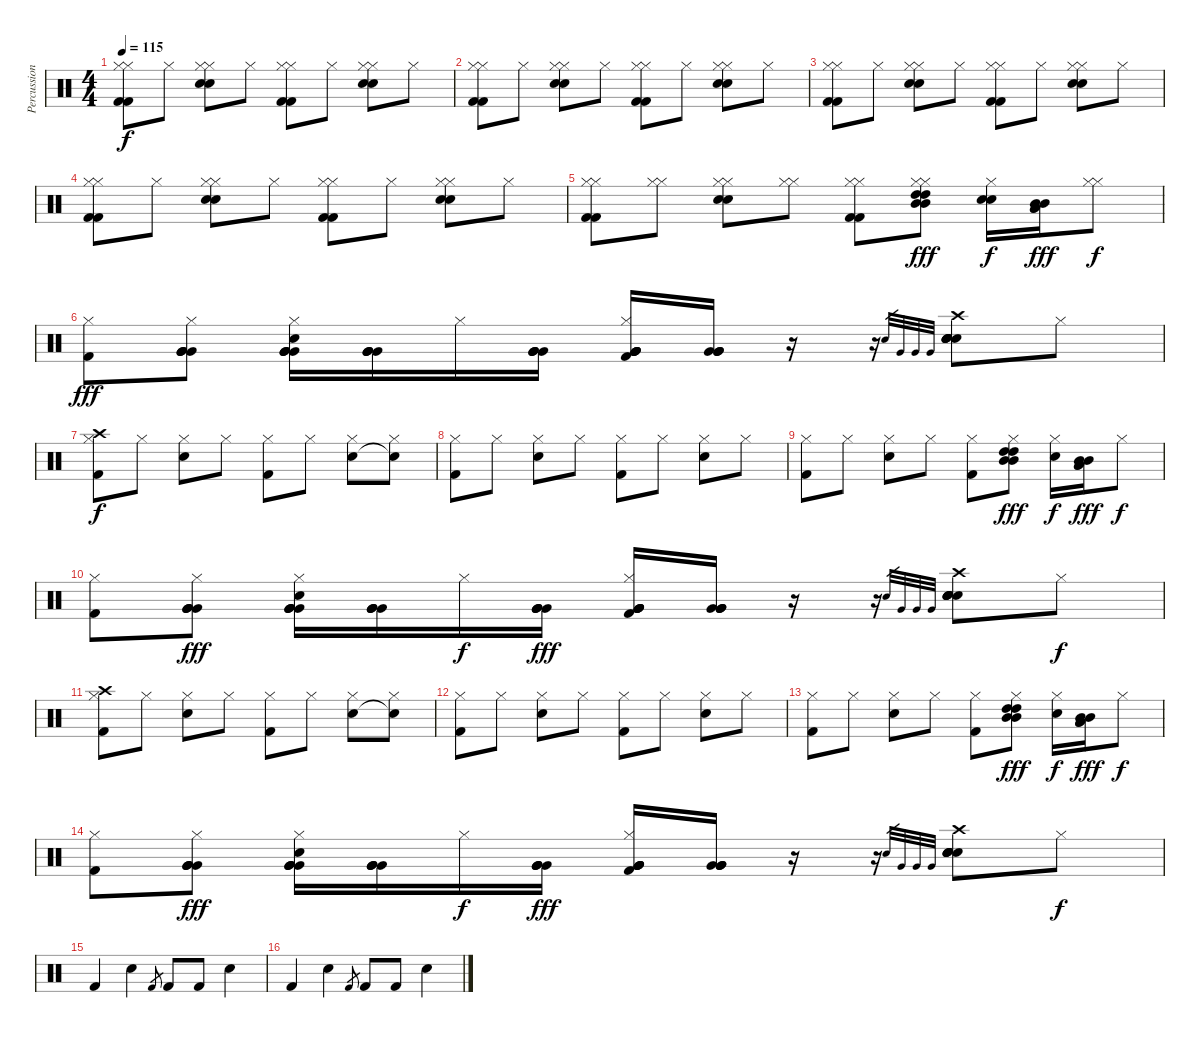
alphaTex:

\track ("Percussion" "Percussion") {instrument percussion}
\staff {score}
\articulation defaults
\ts (4 4)
\tempo 115
\clef neutral
\ks c
("Kick (hit) 2" "Kick (hit) 2" "Hi-Hat (closed)" "Hi-Hat (closed)").8{dy f} "Hi-Hat (closed)".8 ("Electric Snare (hit)" "Electric Snare (hit)" "Hi-Hat (closed)" "Hi-Hat (closed)").8 "Hi-Hat (closed)".8 ("Kick (hit) 2" "Kick (hit) 2" "Hi-Hat (closed)" "Hi-Hat (closed)").8 "Hi-Hat (closed)".8 ("Electric Snare (hit)" "Electric Snare (hit)" "Hi-Hat (closed)" "Hi-Hat (closed)").8 "Hi-Hat (closed)".8 |
("Kick (hit) 2" "Kick (hit) 2" "Hi-Hat (closed)" "Hi-Hat (closed)").8 "Hi-Hat (closed)".8 ("Electric Snare (hit)" "Electric Snare (hit)" "Hi-Hat (closed)" "Hi-Hat (closed)").8 "Hi-Hat (closed)".8 ("Kick (hit) 2" "Kick (hit) 2" "Hi-Hat (closed)" "Hi-Hat (closed)").8 "Hi-Hat (closed)".8 ("Electric Snare (hit)" "Electric Snare (hit)" "Hi-Hat (closed)" "Hi-Hat (closed)").8 "Hi-Hat (closed)".8 |
("Kick (hit) 2" "Kick (hit) 2" "Hi-Hat (closed)" "Hi-Hat (closed)").8 "Hi-Hat (closed)".8 ("Electric Snare (hit)" "Electric Snare (hit)" "Hi-Hat (closed)" "Hi-Hat (closed)").8 "Hi-Hat (closed)".8 ("Kick (hit) 2" "Kick (hit) 2" "Hi-Hat (closed)" "Hi-Hat (closed)").8 "Hi-Hat (closed)".8 ("Electric Snare (hit)" "Electric Snare (hit)" "Hi-Hat (closed)" "Hi-Hat (closed)").8 "Hi-Hat (closed)".8 |
("Kick (hit) 2" "Kick (hit) 2" "Hi-Hat (closed)" "Hi-Hat (closed)").8 "Hi-Hat (closed)".8 ("Electric Snare (hit)" "Electric Snare (hit)" "Hi-Hat (closed)" "Hi-Hat (closed)").8 "Hi-Hat (closed)".8 ("Kick (hit) 2" "Kick (hit) 2" "Hi-Hat (closed)" "Hi-Hat (closed)").8 "Hi-Hat (closed)".8 ("Electric Snare (hit)" "Electric Snare (hit)" "Hi-Hat (closed)" "Hi-Hat (closed)").8 "Hi-Hat (closed)".8 |
("Hi-Hat (closed)" "Kick (hit) 2" "Kick (hit) 2" "Hi-Hat (closed)").8 ("Hi-Hat (closed)" "Hi-Hat (closed)").8 ("Hi-Hat (closed)" "Electric Snare (hit)" "Electric Snare (hit)" "Hi-Hat (closed)").8 ("Hi-Hat (closed)" "Hi-Hat (closed)").8 ("Hi-Hat (closed)" "Kick (hit) 2" "Kick (hit) 2" "Hi-Hat (closed)").8 ("Hi-Hat (closed)" "Hi-Hat (closed)" "High Tom (hit)" "High Tom (hit)" "Mid Tom (hit)" "Mid Tom (hit)").8{dy fff} ("Hi-Hat (closed)" "Electric Snare (hit)" "Electric Snare (hit)").16{dy f} ("Mid Tom (hit)" "Mid Tom (hit)" "Low Tom (hit)" "Low Tom (hit)").16{dy fff} ("Hi-Hat (closed)" "Hi-Hat (closed)").8{dy f} |
("Hi-Hat (closed)" "Kick (hit) 2").8{dy fff} ("Hi-Hat (closed)" "Very Low Tom (hit)" "Very Low Tom (hit)" "Very Low Tom (hit)" "Very Low Tom (hit)").8 ("Hi-Hat (closed)" "Electric Snare (hit)" "Very Low Tom (hit)" "Very Low Tom (hit)" "Very Low Tom (hit)" "Very Low Tom (hit)").16 ("Very Low Tom (hit)" "Very Low Tom (hit)" "Very Low Tom (hit)" "Very Low Tom (hit)").16 "Hi-Hat (closed)".16 ("Very Low Tom (hit)" "Very Low Tom (hit)" "Very Low Tom (hit)" "Very Low Tom (hit)").16 ("Hi-Hat (closed)" "Kick (hit) 2" "Very Low Tom (hit)" "Very Low Tom (hit)" "Very Low Tom (hit)" "Very Low Tom (hit)").16 ("Very Low Tom (hit)" "Very Low Tom (hit)" "Very Low Tom (hit)" "Very Low Tom (hit)").16 r.16 r.16 "Snare (hit)".32{gr} "Very Low Tom (hit)".32{gr} "Very Low Tom (hit)".32{gr} "Very Low Tom (hit)".32{gr} ("Crash high (hit)" "Electric Snare (hit)" "Electric Snare (hit)" "Electric Snare (hit)" "Electric Snare (hit)" "Electric Snare (hit)").8 "Hi-Hat (closed)".8 |
("Hi-Hat (closed)" "Kick (hit) 2" "Crash high (hit)").8{dy f} "Hi-Hat (closed)".8 ("Hi-Hat (closed)" "Electric Snare (hit)").8 "Hi-Hat (closed)".8 ("Hi-Hat (closed)" "Kick (hit) 2").8 "Hi-Hat (closed)".8 ("Hi-Hat (closed)" "Electric Snare (hit)").8 ("Hi-Hat (closed)" "Snare (hit)"{t}).8 |
("Hi-Hat (closed)" "Kick (hit) 2").8 "Hi-Hat (closed)".8 ("Hi-Hat (closed)" "Electric Snare (hit)").8 "Hi-Hat (closed)".8 ("Hi-Hat (closed)" "Kick (hit) 2").8 "Hi-Hat (closed)".8 ("Hi-Hat (closed)" "Electric Snare (hit)").8 "Hi-Hat (closed)".8 |
("Hi-Hat (closed)" "Kick (hit) 2").8 "Hi-Hat (closed)".8 ("Hi-Hat (closed)" "Electric Snare (hit)").8 "Hi-Hat (closed)".8 ("Hi-Hat (closed)" "Kick (hit) 2").8 ("Hi-Hat (closed)" "High Tom (hit)" "High Tom (hit)" "Mid Tom (hit)" "Mid Tom (hit)").8{dy fff} ("Hi-Hat (closed)" "Electric Snare (hit)").16{dy f} ("Mid Tom (hit)" "Mid Tom (hit)" "Low Tom (hit)" "Low Tom (hit)").16{dy fff} "Hi-Hat (closed)".8{dy f} |
("Hi-Hat (closed)" "Kick (hit) 2").8 ("Hi-Hat (closed)" "Very Low Tom (hit)" "Very Low Tom (hit)" "Very Low Tom (hit)" "Very Low Tom (hit)").8{dy fff} ("Hi-Hat (closed)" "Electric Snare (hit)" "Very Low Tom (hit)" "Very Low Tom (hit)" "Very Low Tom (hit)" "Very Low Tom (hit)").16 ("Very Low Tom (hit)" "Very Low Tom (hit)" "Very Low Tom (hit)" "Very Low Tom (hit)").16 "Hi-Hat (closed)".16{dy f} ("Very Low Tom (hit)" "Very Low Tom (hit)" "Very Low Tom (hit)" "Very Low Tom (hit)").16{dy fff} ("Hi-Hat (closed)" "Kick (hit) 2" "Very Low Tom (hit)" "Very Low Tom (hit)" "Very Low Tom (hit)" "Very Low Tom (hit)").16 ("Very Low Tom (hit)" "Very Low Tom (hit)" "Very Low Tom (hit)" "Very Low Tom (hit)").16 r.16 r.16 "Snare (hit)".32{gr} "Very Low Tom (hit)".32{gr} "Very Low Tom (hit)".32{gr} "Very Low Tom (hit)".32{gr} ("Crash high (hit)" "Electric Snare (hit)" "Electric Snare (hit)" "Electric Snare (hit)" "Electric Snare (hit)" "Electric Snare (hit)").8 "Hi-Hat (closed)".8{dy f} |
("Hi-Hat (closed)" "Kick (hit) 2" "Crash high (hit)").8 "Hi-Hat (closed)".8 ("Hi-Hat (closed)" "Electric Snare (hit)").8 "Hi-Hat (closed)".8 ("Hi-Hat (closed)" "Kick (hit) 2").8 "Hi-Hat (closed)".8 ("Hi-Hat (closed)" "Electric Snare (hit)").8 ("Hi-Hat (closed)" "Snare (hit)"{t}).8 |
("Hi-Hat (closed)" "Kick (hit) 2").8 "Hi-Hat (closed)".8 ("Hi-Hat (closed)" "Electric Snare (hit)").8 "Hi-Hat (closed)".8 ("Hi-Hat (closed)" "Kick (hit) 2").8 "Hi-Hat (closed)".8 ("Hi-Hat (closed)" "Electric Snare (hit)").8 "Hi-Hat (closed)".8 |
("Hi-Hat (closed)" "Kick (hit) 2").8 "Hi-Hat (closed)".8 ("Hi-Hat (closed)" "Electric Snare (hit)").8 "Hi-Hat (closed)".8 ("Hi-Hat (closed)" "Kick (hit) 2").8 ("Hi-Hat (closed)" "High Tom (hit)" "High Tom (hit)" "Mid Tom (hit)" "Mid Tom (hit)").8{dy fff} ("Hi-Hat (closed)" "Electric Snare (hit)").16{dy f} ("Mid Tom (hit)" "Mid Tom (hit)" "Low Tom (hit)" "Low Tom (hit)").16{dy fff} "Hi-Hat (closed)".8{dy f} |
("Hi-Hat (closed)" "Kick (hit) 2").8 ("Hi-Hat (closed)" "Very Low Tom (hit)" "Very Low Tom (hit)" "Very Low Tom (hit)" "Very Low Tom (hit)").8{dy fff} ("Hi-Hat (closed)" "Electric Snare (hit)" "Very Low Tom (hit)" "Very Low Tom (hit)" "Very Low Tom (hit)" "Very Low Tom (hit)").16 ("Very Low Tom (hit)" "Very Low Tom (hit)" "Very Low Tom (hit)" "Very Low Tom (hit)").16 "Hi-Hat (closed)".16{dy f} ("Very Low Tom (hit)" "Very Low Tom (hit)" "Very Low Tom (hit)" "Very Low Tom (hit)").16{dy fff} ("Hi-Hat (closed)" "Kick (hit) 2" "Very Low Tom (hit)" "Very Low Tom (hit)" "Very Low Tom (hit)" "Very Low Tom (hit)").16 ("Very Low Tom (hit)" "Very Low Tom (hit)" "Very Low Tom (hit)" "Very Low Tom (hit)").16 r.16 r.16 "Snare (hit)".32{gr} "Very Low Tom (hit)".32{gr} "Very Low Tom (hit)".32{gr} "Very Low Tom (hit)".32{gr} ("Crash high (hit)" "Electric Snare (hit)" "Electric Snare (hit)" "Electric Snare (hit)" "Electric Snare (hit)" "Electric Snare (hit)").8 "Hi-Hat (closed)".8{dy f} |
"Kick (hit) 2".4 "Hand Clap (hit)".4 "Kick (hit) 2".8{gr} "Kick (hit) 2".8 "Kick (hit) 2".8 "Hand Clap (hit)".4 |
"Kick (hit) 2".4 "Hand Clap (hit)".4 "Kick (hit) 2".8{gr} "Kick (hit) 2".8 "Kick (hit) 2".8 "Hand Clap (hit)".4
